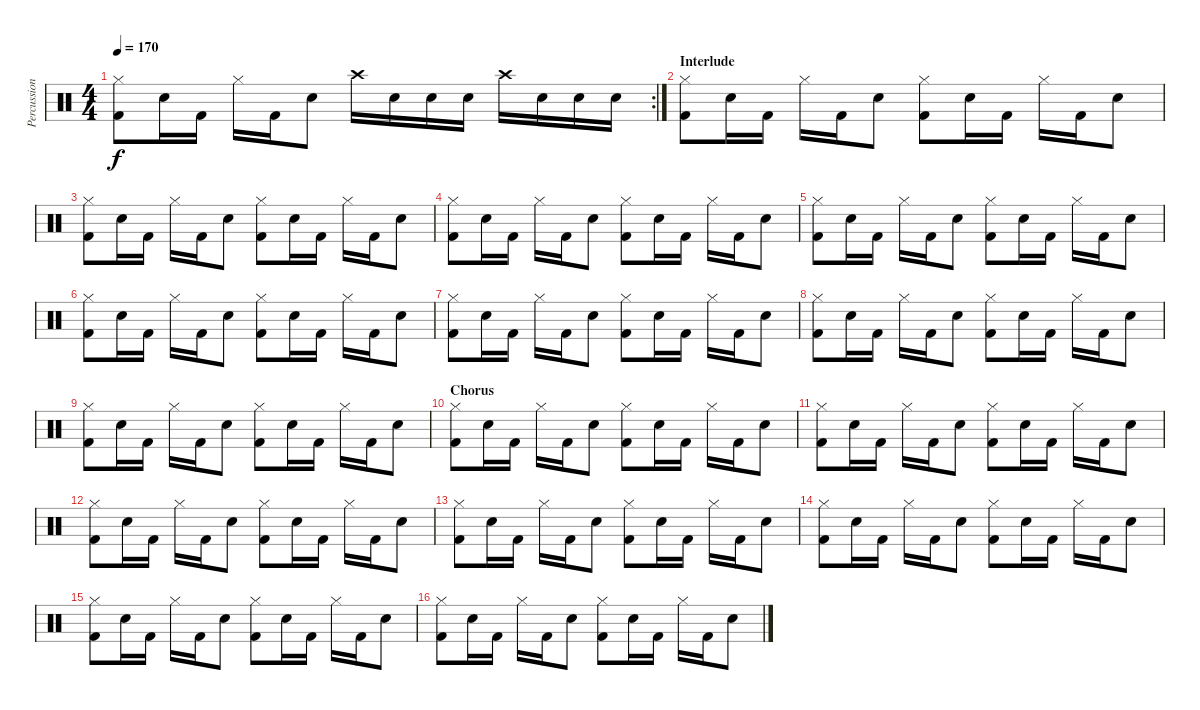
\track ("Percussions" "Percussion") {instrument percussion}
\staff {score}
\articulation defaults
\rc 2
\ts (4 4)
\tempo 170
\clef neutral
\ks c
("Hi-Hat (closed)" "Kick (hit) 2").8{dy f} "Snare (hit) 2".16 "Kick (hit) 2".16 "Hi-Hat (closed)".16 "Kick (hit) 2".16 "Snare (hit) 2".8 "Crash high (hit)".16 "Snare (hit) 2".16 "Snare (hit) 2".16 "Snare (hit) 2".16 "Crash high (hit)".16 "Snare (hit) 2".16 "Snare (hit) 2".16 "Snare (hit) 2".16 |
\section ("" "Interlude")
("Hi-Hat (closed)" "Kick (hit) 2").8 "Snare (hit) 2".16 "Kick (hit) 2".16 "Hi-Hat (closed)".16 "Kick (hit) 2".16 "Snare (hit) 2".8 ("Hi-Hat (closed)" "Kick (hit) 2").8 "Snare (hit) 2".16 "Kick (hit) 2".16 "Hi-Hat (closed)".16 "Kick (hit) 2".16 "Snare (hit) 2".8 |
("Hi-Hat (closed)" "Kick (hit) 2").8 "Snare (hit) 2".16 "Kick (hit) 2".16 "Hi-Hat (closed)".16 "Kick (hit) 2".16 "Snare (hit) 2".8 ("Hi-Hat (closed)" "Kick (hit) 2").8 "Snare (hit) 2".16 "Kick (hit) 2".16 "Hi-Hat (closed)".16 "Kick (hit) 2".16 "Snare (hit) 2".8 |
("Hi-Hat (closed)" "Kick (hit) 2").8 "Snare (hit) 2".16 "Kick (hit) 2".16 "Hi-Hat (closed)".16 "Kick (hit) 2".16 "Snare (hit) 2".8 ("Hi-Hat (closed)" "Kick (hit) 2").8 "Snare (hit) 2".16 "Kick (hit) 2".16 "Hi-Hat (closed)".16 "Kick (hit) 2".16 "Snare (hit) 2".8 |
("Hi-Hat (closed)" "Kick (hit) 2").8 "Snare (hit) 2".16 "Kick (hit) 2".16 "Hi-Hat (closed)".16 "Kick (hit) 2".16 "Snare (hit) 2".8 ("Hi-Hat (closed)" "Kick (hit) 2").8 "Snare (hit) 2".16 "Kick (hit) 2".16 "Hi-Hat (closed)".16 "Kick (hit) 2".16 "Snare (hit) 2".8 |
("Hi-Hat (closed)" "Kick (hit) 2").8 "Snare (hit) 2".16 "Kick (hit) 2".16 "Hi-Hat (closed)".16 "Kick (hit) 2".16 "Snare (hit) 2".8 ("Hi-Hat (closed)" "Kick (hit) 2").8 "Snare (hit) 2".16 "Kick (hit) 2".16 "Hi-Hat (closed)".16 "Kick (hit) 2".16 "Snare (hit) 2".8 |
("Hi-Hat (closed)" "Kick (hit) 2").8 "Snare (hit) 2".16 "Kick (hit) 2".16 "Hi-Hat (closed)".16 "Kick (hit) 2".16 "Snare (hit) 2".8 ("Hi-Hat (closed)" "Kick (hit) 2").8 "Snare (hit) 2".16 "Kick (hit) 2".16 "Hi-Hat (closed)".16 "Kick (hit) 2".16 "Snare (hit) 2".8 |
("Hi-Hat (closed)" "Kick (hit) 2").8 "Snare (hit) 2".16 "Kick (hit) 2".16 "Hi-Hat (closed)".16 "Kick (hit) 2".16 "Snare (hit) 2".8 ("Hi-Hat (closed)" "Kick (hit) 2").8 "Snare (hit) 2".16 "Kick (hit) 2".16 "Hi-Hat (closed)".16 "Kick (hit) 2".16 "Snare (hit) 2".8 |
("Hi-Hat (closed)" "Kick (hit) 2").8 "Snare (hit) 2".16 "Kick (hit) 2".16 "Hi-Hat (closed)".16 "Kick (hit) 2".16 "Snare (hit) 2".8 ("Hi-Hat (closed)" "Kick (hit) 2").8 "Snare (hit) 2".16 "Kick (hit) 2".16 "Hi-Hat (closed)".16 "Kick (hit) 2".16 "Snare (hit) 2".8 |
\section ("" "Chorus")
("Hi-Hat (closed)" "Kick (hit) 2").8 "Snare (hit) 2".16 "Kick (hit) 2".16 "Hi-Hat (closed)".16 "Kick (hit) 2".16 "Snare (hit) 2".8 ("Hi-Hat (closed)" "Kick (hit) 2").8 "Snare (hit) 2".16 "Kick (hit) 2".16 "Hi-Hat (closed)".16 "Kick (hit) 2".16 "Snare (hit) 2".8 |
("Hi-Hat (closed)" "Kick (hit) 2").8 "Snare (hit) 2".16 "Kick (hit) 2".16 "Hi-Hat (closed)".16 "Kick (hit) 2".16 "Snare (hit) 2".8 ("Hi-Hat (closed)" "Kick (hit) 2").8 "Snare (hit) 2".16 "Kick (hit) 2".16 "Hi-Hat (closed)".16 "Kick (hit) 2".16 "Snare (hit) 2".8 |
("Hi-Hat (closed)" "Kick (hit) 2").8 "Snare (hit) 2".16 "Kick (hit) 2".16 "Hi-Hat (closed)".16 "Kick (hit) 2".16 "Snare (hit) 2".8 ("Hi-Hat (closed)" "Kick (hit) 2").8 "Snare (hit) 2".16 "Kick (hit) 2".16 "Hi-Hat (closed)".16 "Kick (hit) 2".16 "Snare (hit) 2".8 |
("Hi-Hat (closed)" "Kick (hit) 2").8 "Snare (hit) 2".16 "Kick (hit) 2".16 "Hi-Hat (closed)".16 "Kick (hit) 2".16 "Snare (hit) 2".8 ("Hi-Hat (closed)" "Kick (hit) 2").8 "Snare (hit) 2".16 "Kick (hit) 2".16 "Hi-Hat (closed)".16 "Kick (hit) 2".16 "Snare (hit) 2".8 |
("Hi-Hat (closed)" "Kick (hit) 2").8 "Snare (hit) 2".16 "Kick (hit) 2".16 "Hi-Hat (closed)".16 "Kick (hit) 2".16 "Snare (hit) 2".8 ("Hi-Hat (closed)" "Kick (hit) 2").8 "Snare (hit) 2".16 "Kick (hit) 2".16 "Hi-Hat (closed)".16 "Kick (hit) 2".16 "Snare (hit) 2".8 |
("Hi-Hat (closed)" "Kick (hit) 2").8 "Snare (hit) 2".16 "Kick (hit) 2".16 "Hi-Hat (closed)".16 "Kick (hit) 2".16 "Snare (hit) 2".8 ("Hi-Hat (closed)" "Kick (hit) 2").8 "Snare (hit) 2".16 "Kick (hit) 2".16 "Hi-Hat (closed)".16 "Kick (hit) 2".16 "Snare (hit) 2".8 |
("Hi-Hat (closed)" "Kick (hit) 2").8 "Snare (hit) 2".16 "Kick (hit) 2".16 "Hi-Hat (closed)".16 "Kick (hit) 2".16 "Snare (hit) 2".8 ("Hi-Hat (closed)" "Kick (hit) 2").8 "Snare (hit) 2".16 "Kick (hit) 2".16 "Hi-Hat (closed)".16 "Kick (hit) 2".16 "Snare (hit) 2".8
